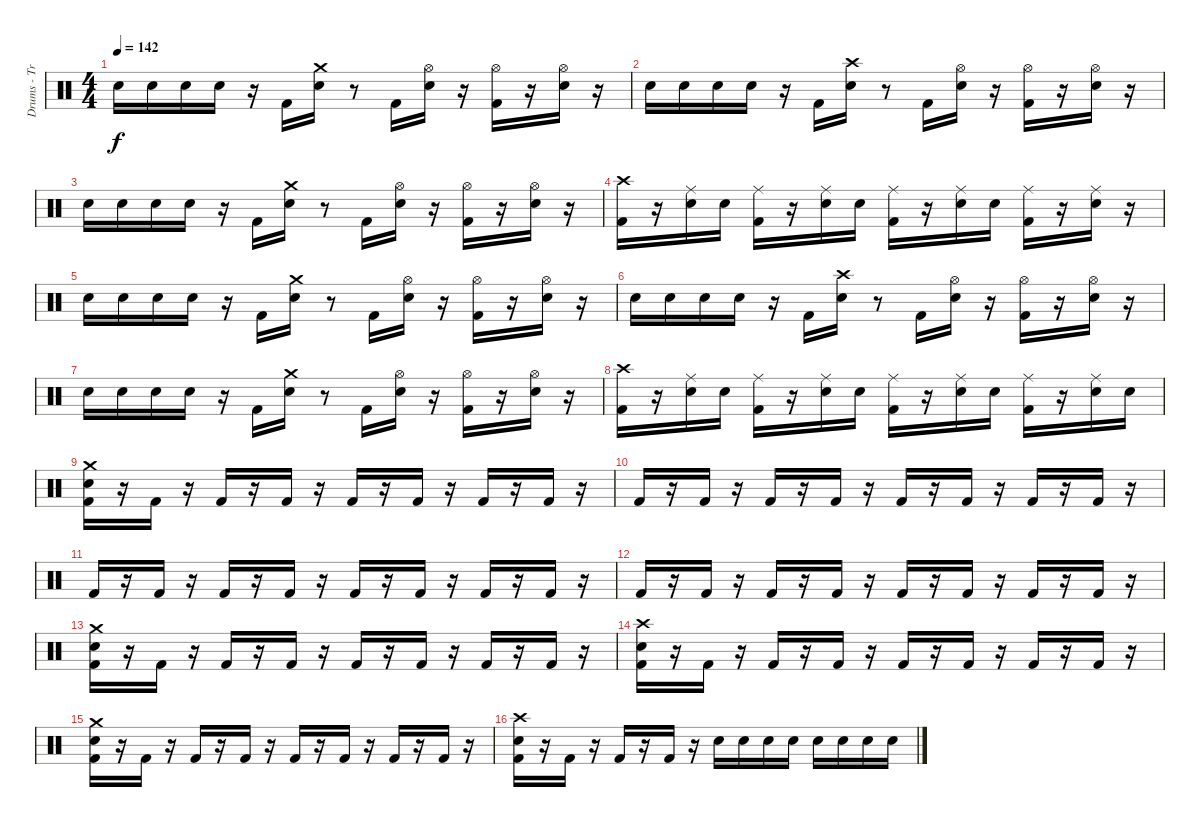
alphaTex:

\track ("Drums - Travis" "Drums - Tr") {instrument percussion}
\staff {score}
\articulation defaults
\ts (4 4)
\tempo 142
\clef neutral
\ks c "Electric Snare (hit)".16{dy f} "Electric Snare (hit)".16 "Electric Snare (hit)".16 "Electric Snare (hit)".16
r.16 "Kick (hit) 2".16 ("Electric Snare (hit)" "Crash medium (hit)").16 r.8 "Kick (hit) 2".16 ("Hi-Hat (open)" "Electric Snare (hit)").16 r.16 ("Hi-Hat (open)" "Kick (hit) 2").16 r.16 ("Hi-Hat (open)" "Electric Snare (hit)").16 r.16 |
"Electric Snare (hit)".16 "Electric Snare (hit)".16 "Electric Snare (hit)".16 "Electric Snare (hit)".16 r.16 "Kick (hit) 2".16 ("Electric Snare (hit)" "Crash high (hit)").16 r.8 "Kick (hit) 2".16 ("Hi-Hat (open)" "Electric Snare (hit)").16 r.16 ("Hi-Hat (open)" "Kick (hit) 2").16 r.16 ("Hi-Hat (open)" "Electric Snare (hit)").16 r.16 |
"Electric Snare (hit)".16 "Electric Snare (hit)".16 "Electric Snare (hit)".16 "Electric Snare (hit)".16 r.16 "Kick (hit) 2".16 ("Electric Snare (hit)" "Crash medium (hit)").16 r.8 "Kick (hit) 2".16 ("Hi-Hat (open)" "Electric Snare (hit)").16 r.16 ("Hi-Hat (open)" "Kick (hit) 2").16 r.16 ("Hi-Hat (open)" "Electric Snare (hit)").16 r.16 |
("Kick (hit) 2" "Crash high (hit)").16 r.16 ("Electric Snare (hit)" "Ride (middle)").16 "Electric Snare (hit)".16 ("Kick (hit) 2" "Ride (middle)").16 r.16 ("Electric Snare (hit)" "Ride (middle)").16 "Electric Snare (hit)".16 ("Kick (hit) 2" "Ride (middle)").16 r.16 ("Electric Snare (hit)" "Ride (middle)").16 "Electric Snare (hit)".16 ("Kick (hit) 2" "Ride (middle)").16 r.16 ("Electric Snare (hit)" "Ride (middle)").16 r.16 |
"Electric Snare (hit)".16 "Electric Snare (hit)".16 "Electric Snare (hit)".16 "Electric Snare (hit)".16 r.16 "Kick (hit) 2".16 ("Electric Snare (hit)" "Crash medium (hit)").16 r.8 "Kick (hit) 2".16 ("Hi-Hat (open)" "Electric Snare (hit)").16 r.16 ("Hi-Hat (open)" "Kick (hit) 2").16 r.16 ("Hi-Hat (open)" "Electric Snare (hit)").16 r.16 |
"Electric Snare (hit)".16 "Electric Snare (hit)".16 "Electric Snare (hit)".16 "Electric Snare (hit)".16 r.16 "Kick (hit) 2".16 ("Electric Snare (hit)" "Crash high (hit)").16 r.8 "Kick (hit) 2".16 ("Hi-Hat (open)" "Electric Snare (hit)").16 r.16 ("Hi-Hat (open)" "Kick (hit) 2").16 r.16 ("Hi-Hat (open)" "Electric Snare (hit)").16 r.16 |
"Electric Snare (hit)".16 "Electric Snare (hit)".16 "Electric Snare (hit)".16 "Electric Snare (hit)".16 r.16 "Kick (hit) 2".16 ("Electric Snare (hit)" "Crash medium (hit)").16 r.8 "Kick (hit) 2".16 ("Hi-Hat (open)" "Electric Snare (hit)").16 r.16 ("Hi-Hat (open)" "Kick (hit) 2").16 r.16 ("Hi-Hat (open)" "Electric Snare (hit)").16 r.16 |
("Kick (hit) 2" "Crash high (hit)").16 r.16 ("Electric Snare (hit)" "Ride (middle)").16 "Electric Snare (hit)".16 ("Kick (hit) 2" "Ride (middle)").16 r.16 ("Electric Snare (hit)" "Ride (middle)").16 "Electric Snare (hit)".16 ("Kick (hit) 2" "Ride (middle)").16 r.16 ("Electric Snare (hit)" "Ride (middle)").16 "Electric Snare (hit)".16 ("Kick (hit) 2" "Ride (middle)").16 r.16 ("Electric Snare (hit)" "Ride (middle)").16 "Electric Snare (hit)".16 |
("Electric Snare (hit)" "Kick (hit) 2" "Crash medium (hit)").16 r.16 "Kick (hit) 2".16 r.16 "Kick (hit) 2".16 r.16 "Kick (hit) 2".16 r.16 "Kick (hit) 2".16 r.16 "Kick (hit) 2".16 r.16 "Kick (hit) 2".16 r.16 "Kick (hit) 2".16 r.16 |
"Kick (hit) 2".16 r.16 "Kick (hit) 2".16 r.16 "Kick (hit) 2".16 r.16 "Kick (hit) 2".16 r.16 "Kick (hit) 2".16 r.16 "Kick (hit) 2".16 r.16 "Kick (hit) 2".16 r.16 "Kick (hit) 2".16 r.16 |
"Kick (hit) 2".16 r.16 "Kick (hit) 2".16 r.16 "Kick (hit) 2".16 r.16 "Kick (hit) 2".16 r.16 "Kick (hit) 2".16 r.16 "Kick (hit) 2".16 r.16 "Kick (hit) 2".16 r.16 "Kick (hit) 2".16 r.16 |
"Kick (hit) 2".16 r.16 "Kick (hit) 2".16 r.16 "Kick (hit) 2".16 r.16 "Kick (hit) 2".16 r.16 "Kick (hit) 2".16 r.16 "Kick (hit) 2".16 r.16 "Kick (hit) 2".16 r.16 "Kick (hit) 2".16 r.16 |
("Electric Snare (hit)" "Kick (hit) 2" "Crash medium (hit)").16 r.16 "Kick (hit) 2".16 r.16 "Kick (hit) 2".16 r.16 "Kick (hit) 2".16 r.16 "Kick (hit) 2".16 r.16 "Kick (hit) 2".16 r.16 "Kick (hit) 2".16 r.16 "Kick (hit) 2".16 r.16 |
("Electric Snare (hit)" "Kick (hit) 2" "Crash high (hit)").16 r.16 "Kick (hit) 2".16 r.16 "Kick (hit) 2".16 r.16 "Kick (hit) 2".16 r.16 "Kick (hit) 2".16 r.16 "Kick (hit) 2".16 r.16 "Kick (hit) 2".16 r.16 "Kick (hit) 2".16 r.16 |
("Electric Snare (hit)" "Kick (hit) 2" "Crash medium (hit)").16 r.16 "Kick (hit) 2".16 r.16 "Kick (hit) 2".16 r.16 "Kick (hit) 2".16 r.16 "Kick (hit) 2".16 r.16 "Kick (hit) 2".16 r.16 "Kick (hit) 2".16 r.16 "Kick (hit) 2".16 r.16 |
("Electric Snare (hit)" "Kick (hit) 2" "Crash high (hit)").16 r.16 "Kick (hit) 2".16 r.16 "Kick (hit) 2".16 r.16 "Kick (hit) 2".16 r.16 "Electric Snare (hit)".16 "Electric Snare (hit)".16 "Electric Snare (hit)".16 "Electric Snare (hit)".16 "Electric Snare (hit)".16 "Electric Snare (hit)".16 "Electric Snare (hit)".16 "Electric Snare (hit)".16
